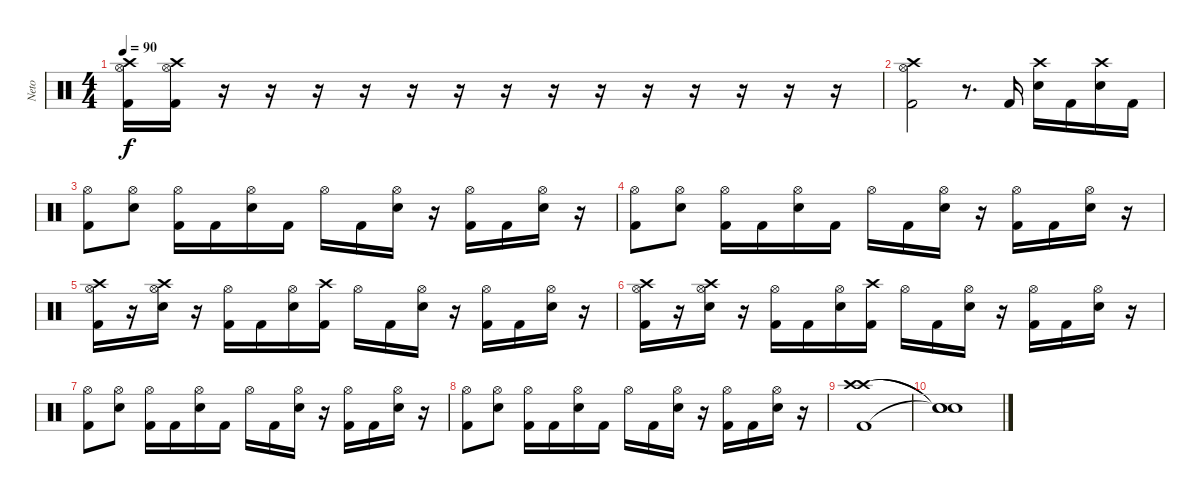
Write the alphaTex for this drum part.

\track ("Neto" "Neto") {instrument percussion}
\staff {score}
\articulation defaults
\ts (4 4)
\tempo 90
\clef neutral
\ks c
("Kick (hit) 2" "Hi-Hat (open)" "Crash high (hit)").16{dy f} ("Kick (hit) 2" "Hi-Hat (open)" "Crash high (hit)").16 r.16 r.16 r.16 r.16 r.16 r.16 r.16 r.16 r.16 r.16 r.16 r.16 r.16 r.16 |
("Kick (hit) 2" "Hi-Hat (open)" "Crash high (hit)").2 r.8{d} "Kick (hit) 2".16 ("Snare (hit) 2" "Crash high (hit)").16 "Kick (hit) 2".16 ("Snare (hit) 2" "Crash high (hit)").16 "Kick (hit) 2".16 |
("Kick (hit) 2" "Hi-Hat (open)").8 ("Snare (hit) 2" "Hi-Hat (open)").8 ("Kick (hit) 2" "Hi-Hat (open)").16 "Kick (hit) 2".16 ("Snare (hit) 2" "Hi-Hat (open)").16 "Kick (hit) 2".16 "Hi-Hat (open)".16 "Kick (hit) 2".16 ("Snare (hit) 2" "Hi-Hat (open)").16 r.16 ("Kick (hit) 2" "Hi-Hat (open)").16 "Kick (hit) 2".16 ("Snare (hit) 2" "Hi-Hat (open)").16 r.16 |
("Kick (hit) 2" "Hi-Hat (open)").8 ("Snare (hit) 2" "Hi-Hat (open)").8 ("Kick (hit) 2" "Hi-Hat (open)").16 "Kick (hit) 2".16 ("Snare (hit) 2" "Hi-Hat (open)").16 "Kick (hit) 2".16 "Hi-Hat (open)".16 "Kick (hit) 2".16 ("Snare (hit) 2" "Hi-Hat (open)").16 r.16 ("Kick (hit) 2" "Hi-Hat (open)").16 "Kick (hit) 2".16 ("Snare (hit) 2" "Hi-Hat (open)").16 r.16 |
("Kick (hit) 2" "Hi-Hat (open)" "Crash high (hit)").16 r.16 ("Snare (hit) 2" "Hi-Hat (open)" "Crash high (hit)").16 r.16 ("Kick (hit) 2" "Hi-Hat (open)").16 "Kick (hit) 2".16 ("Snare (hit) 2" "Hi-Hat (open)").16 ("Kick (hit) 2" "Crash high (hit)").16 "Hi-Hat (open)".16 "Kick (hit) 2".16 ("Snare (hit) 2" "Hi-Hat (open)").16 r.16 ("Kick (hit) 2" "Hi-Hat (open)").16 "Kick (hit) 2".16 ("Snare (hit) 2" "Hi-Hat (open)").16 r.16 |
("Kick (hit) 2" "Hi-Hat (open)" "Crash high (hit)").16 r.16 ("Snare (hit) 2" "Hi-Hat (open)" "Crash high (hit)").16 r.16 ("Kick (hit) 2" "Hi-Hat (open)").16 "Kick (hit) 2".16 ("Snare (hit) 2" "Hi-Hat (open)").16 ("Kick (hit) 2" "Crash high (hit)").16 "Hi-Hat (open)".16 "Kick (hit) 2".16 ("Snare (hit) 2" "Hi-Hat (open)").16 r.16 ("Kick (hit) 2" "Hi-Hat (open)").16 "Kick (hit) 2".16 ("Snare (hit) 2" "Hi-Hat (open)").16 r.16 |
("Kick (hit) 2" "Hi-Hat (open)").8 ("Snare (hit) 2" "Hi-Hat (open)").8 ("Kick (hit) 2" "Hi-Hat (open)").16 "Kick (hit) 2".16 ("Snare (hit) 2" "Hi-Hat (open)").16 "Kick (hit) 2".16 "Hi-Hat (open)".16 "Kick (hit) 2".16 ("Snare (hit) 2" "Hi-Hat (open)").16 r.16 ("Kick (hit) 2" "Hi-Hat (open)").16 "Kick (hit) 2".16 ("Snare (hit) 2" "Hi-Hat (open)").16 r.16 |
("Kick (hit) 2" "Hi-Hat (open)").8 ("Snare (hit) 2" "Hi-Hat (open)").8 ("Kick (hit) 2" "Hi-Hat (open)").16 "Kick (hit) 2".16 ("Snare (hit) 2" "Hi-Hat (open)").16 "Kick (hit) 2".16 "Hi-Hat (open)".16 "Kick (hit) 2".16 ("Snare (hit) 2" "Hi-Hat (open)").16 r.16 ("Kick (hit) 2" "Hi-Hat (open)").16 "Kick (hit) 2".16 ("Snare (hit) 2" "Hi-Hat (open)").16 r.16 |
("Kick (hit) 2" "Crash high (hit)" "Crash high (hit)").1 |
("Snare (hit)"{t} "Snare (hit)"{t} "Snare (hit)"{t}).1
